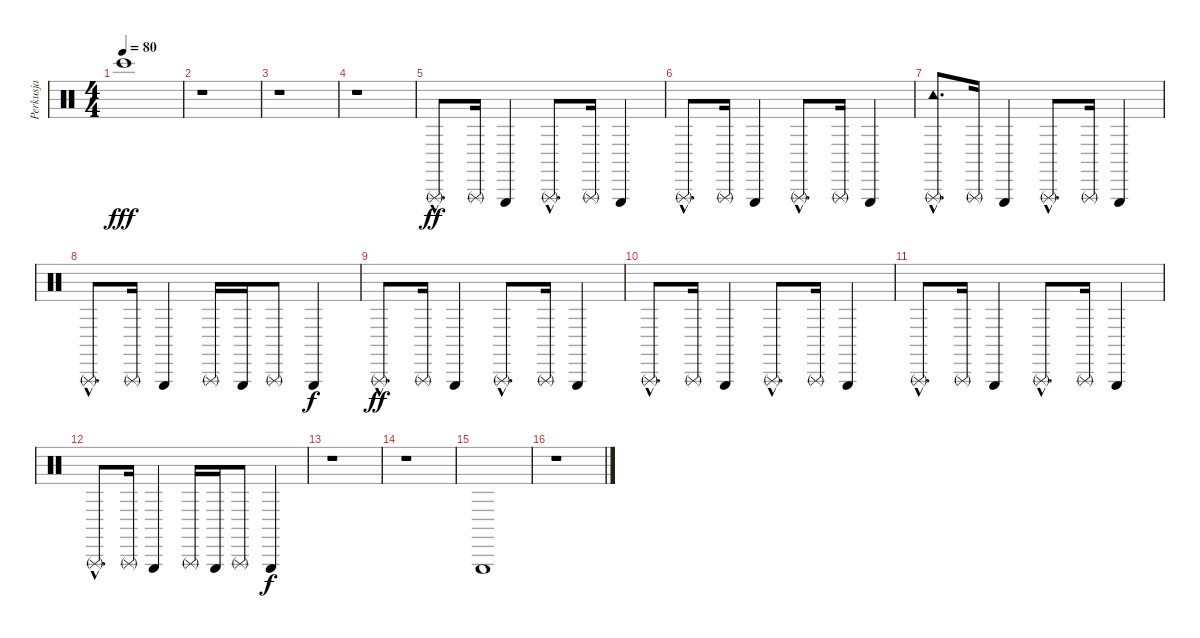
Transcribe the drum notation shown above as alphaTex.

\track ("Perkusja" "Perkusja") {instrument percussion}
\staff {score}
\articulation defaults
\ts (4 4)
\tempo 80
\clef neutral
\ks c "Bongo High (hit)".1{dy fff}
|
r.1 |
r.1 |
r.1 |
"Triangle (rnute)"{hac}.8{d dy ff} "Triangle (rnute)".16 "Triangle (hit)".4 "Triangle (rnute)"{hac}.8{d} "Triangle (rnute)".16 "Triangle (hit)".4 |
"Triangle (rnute)"{hac}.8{d} "Triangle (rnute)".16 "Triangle (hit)".4 "Triangle (rnute)"{hac}.8{d} "Triangle (rnute)".16 "Triangle (hit)".4 |
("Triangle (rnute)"{hac} "Tambourine (hit)"{hac}).8{d} "Triangle (rnute)".16 "Triangle (hit)".4 "Triangle (rnute)"{hac}.8{d} "Triangle (rnute)".16 "Triangle (hit)".4 |
"Triangle (rnute)"{hac}.8{d} "Triangle (rnute)".16 "Triangle (hit)".4 "Triangle (rnute)".16 "Triangle (hit)".16 "Triangle (rnute)".8 "Triangle (hit)".4{dy f} |
"Triangle (rnute)"{hac}.8{d dy ff} "Triangle (rnute)".16 "Triangle (hit)".4 "Triangle (rnute)"{hac}.8{d} "Triangle (rnute)".16 "Triangle (hit)".4 |
"Triangle (rnute)"{hac}.8{d} "Triangle (rnute)".16 "Triangle (hit)".4 "Triangle (rnute)"{hac}.8{d} "Triangle (rnute)".16 "Triangle (hit)".4 |
"Triangle (rnute)"{hac}.8{d} "Triangle (rnute)".16 "Triangle (hit)".4 "Triangle (rnute)"{hac}.8{d} "Triangle (rnute)".16 "Triangle (hit)".4 |
"Triangle (rnute)"{hac}.8{d} "Triangle (rnute)".16 "Triangle (hit)".4 "Triangle (rnute)".16 "Triangle (hit)".16 "Triangle (rnute)".8 "Triangle (hit)".4{dy f} |
r.1 |
r.1 |
"Triangle (hit)".1 |
r.1
